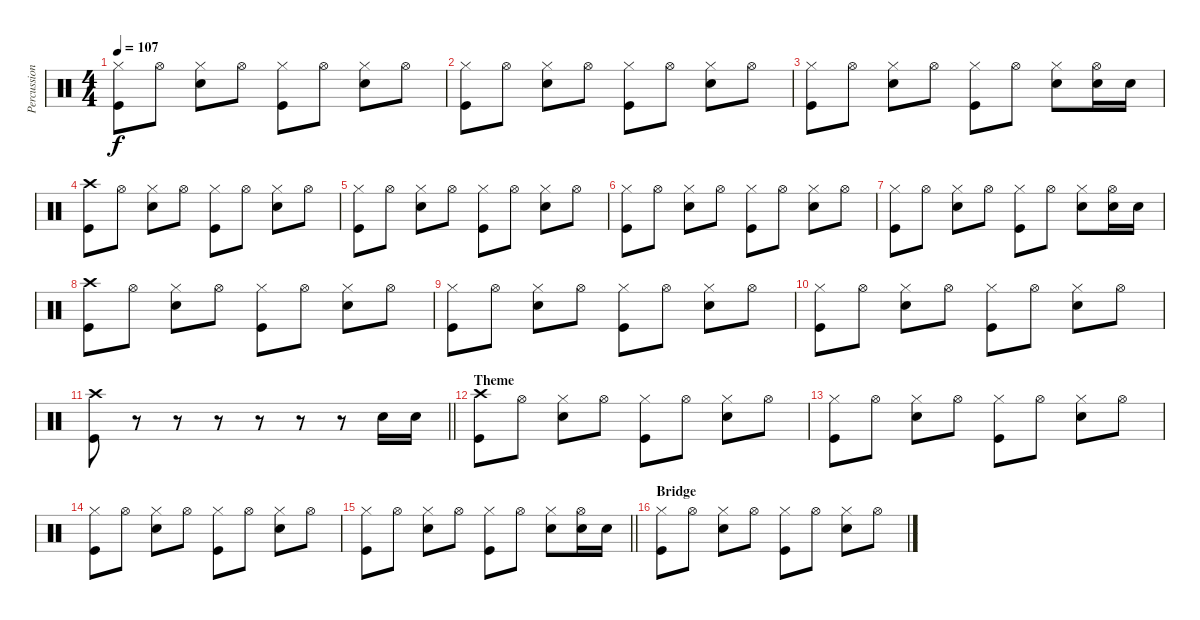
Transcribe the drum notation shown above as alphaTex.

\track ("Percussion" "Percussion") {instrument percussion}
\staff {score}
\articulation defaults
\ts (4 4)
\tempo 107
\clef neutral
\ks c
("Hi-Hat (closed)" "Kick (hit)").8{dy f} "Hi-Hat (open)".8 ("Hi-Hat (closed)" "Snare (hit) 2").8 "Hi-Hat (open)".8 ("Hi-Hat (closed)" "Kick (hit)").8 "Hi-Hat (open)".8 ("Hi-Hat (closed)" "Snare (hit) 2").8 "Hi-Hat (open)".8 |
("Hi-Hat (closed)" "Kick (hit)").8 "Hi-Hat (open)".8 ("Hi-Hat (closed)" "Snare (hit) 2").8 "Hi-Hat (open)".8 ("Hi-Hat (closed)" "Kick (hit)").8 "Hi-Hat (open)".8 ("Hi-Hat (closed)" "Snare (hit) 2").8 "Hi-Hat (open)".8 |
("Hi-Hat (closed)" "Kick (hit)").8 "Hi-Hat (open)".8 ("Hi-Hat (closed)" "Snare (hit) 2").8 "Hi-Hat (open)".8 ("Hi-Hat (closed)" "Kick (hit)").8 "Hi-Hat (open)".8 ("Hi-Hat (closed)" "Snare (hit) 2").8 ("Hi-Hat (open)" "Snare (hit) 2").16 "Snare (hit) 2".16 |
("Crash high (hit)" "Kick (hit)").8 "Hi-Hat (open)".8 ("Hi-Hat (closed)" "Snare (hit) 2").8 "Hi-Hat (open)".8 ("Hi-Hat (closed)" "Kick (hit)").8 "Hi-Hat (open)".8 ("Hi-Hat (closed)" "Snare (hit) 2").8 "Hi-Hat (open)".8 |
("Hi-Hat (closed)" "Kick (hit)").8 "Hi-Hat (open)".8 ("Hi-Hat (closed)" "Snare (hit) 2").8 "Hi-Hat (open)".8 ("Hi-Hat (closed)" "Kick (hit)").8 "Hi-Hat (open)".8 ("Hi-Hat (closed)" "Snare (hit) 2").8 "Hi-Hat (open)".8 |
("Hi-Hat (closed)" "Kick (hit)").8 "Hi-Hat (open)".8 ("Hi-Hat (closed)" "Snare (hit) 2").8 "Hi-Hat (open)".8 ("Hi-Hat (closed)" "Kick (hit)").8 "Hi-Hat (open)".8 ("Hi-Hat (closed)" "Snare (hit) 2").8 "Hi-Hat (open)".8 |
("Hi-Hat (closed)" "Kick (hit)").8 "Hi-Hat (open)".8 ("Hi-Hat (closed)" "Snare (hit) 2").8 "Hi-Hat (open)".8 ("Hi-Hat (closed)" "Kick (hit)").8 "Hi-Hat (open)".8 ("Hi-Hat (closed)" "Snare (hit) 2").8 ("Hi-Hat (open)" "Snare (hit) 2").16 "Snare (hit) 2".16 |
("Crash high (hit)" "Kick (hit)").8 "Hi-Hat (open)".8 ("Hi-Hat (closed)" "Snare (hit) 2").8 "Hi-Hat (open)".8 ("Hi-Hat (closed)" "Kick (hit)").8 "Hi-Hat (open)".8 ("Hi-Hat (closed)" "Snare (hit) 2").8 "Hi-Hat (open)".8 |
("Hi-Hat (closed)" "Kick (hit)").8 "Hi-Hat (open)".8 ("Hi-Hat (closed)" "Snare (hit) 2").8 "Hi-Hat (open)".8 ("Hi-Hat (closed)" "Kick (hit)").8 "Hi-Hat (open)".8 ("Hi-Hat (closed)" "Snare (hit) 2").8 "Hi-Hat (open)".8 |
("Hi-Hat (closed)" "Kick (hit)").8 "Hi-Hat (open)".8 ("Hi-Hat (closed)" "Snare (hit) 2").8 "Hi-Hat (open)".8 ("Hi-Hat (closed)" "Kick (hit)").8 "Hi-Hat (open)".8 ("Hi-Hat (closed)" "Snare (hit) 2").8 "Hi-Hat (open)".8 |
\barLineRight lightlight
("Crash high (hit)" "Kick (hit)").8 r.8 r.8 r.8 r.8 r.8 r.8 "Snare (hit) 2".16 "Snare (hit) 2".16 |
\section ("" "Theme")
("Crash high (hit)" "Kick (hit)").8 "Hi-Hat (open)".8 ("Hi-Hat (closed)" "Snare (hit) 2").8 "Hi-Hat (open)".8 ("Hi-Hat (closed)" "Kick (hit)").8 "Hi-Hat (open)".8 ("Hi-Hat (closed)" "Snare (hit) 2").8 "Hi-Hat (open)".8 |
("Hi-Hat (closed)" "Kick (hit)").8 "Hi-Hat (open)".8 ("Hi-Hat (closed)" "Snare (hit) 2").8 "Hi-Hat (open)".8 ("Hi-Hat (closed)" "Kick (hit)").8 "Hi-Hat (open)".8 ("Hi-Hat (closed)" "Snare (hit) 2").8 "Hi-Hat (open)".8 |
("Hi-Hat (closed)" "Kick (hit)").8 "Hi-Hat (open)".8 ("Hi-Hat (closed)" "Snare (hit) 2").8 "Hi-Hat (open)".8 ("Hi-Hat (closed)" "Kick (hit)").8 "Hi-Hat (open)".8 ("Hi-Hat (closed)" "Snare (hit) 2").8 "Hi-Hat (open)".8 |
\barLineRight lightlight
("Hi-Hat (closed)" "Kick (hit)").8 "Hi-Hat (open)".8 ("Hi-Hat (closed)" "Snare (hit) 2").8 "Hi-Hat (open)".8 ("Hi-Hat (closed)" "Kick (hit)").8 "Hi-Hat (open)".8 ("Hi-Hat (closed)" "Snare (hit) 2").8 ("Hi-Hat (open)" "Snare (hit) 2").16 "Snare (hit) 2".16 |
\section ("" "Bridge")
("Hi-Hat (closed)" "Kick (hit)").8 "Hi-Hat (open)".8 ("Hi-Hat (closed)" "Snare (hit) 2").8 "Hi-Hat (open)".8 ("Hi-Hat (closed)" "Kick (hit)").8 "Hi-Hat (open)".8 ("Hi-Hat (closed)" "Snare (hit) 2").8 "Hi-Hat (open)".8
